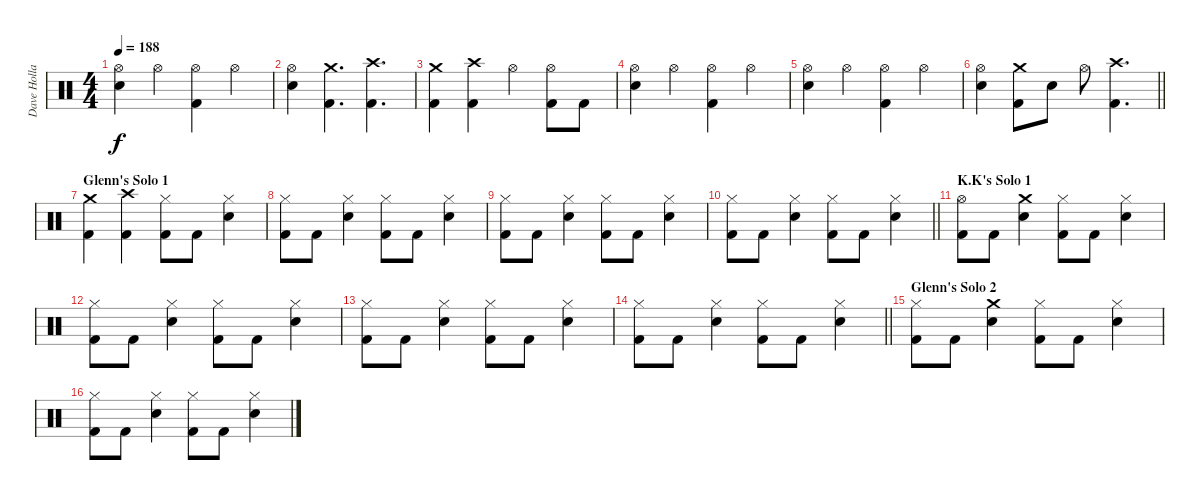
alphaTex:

\track ("Dave Holland" "Dave Holla") {instrument percussion}
\staff {score}
\articulation defaults
\ts (4 4)
\tempo 188
\clef neutral
\ks c
("Snare (hit) 2" "Hi-Hat (open)").4{dy f} "Hi-Hat (open)".4 ("Kick (hit) 2" "Hi-Hat (open)").4 "Hi-Hat (open)".4 |
("Snare (hit) 2" "Hi-Hat (open)").4 ("Kick (hit) 2" "Crash medium (hit)").4{d} ("Kick (hit) 2" "Crash high (hit)").4{d} |
("Kick (hit) 2" "Crash medium (hit)").4 ("Kick (hit) 2" "Crash high (hit)").4 "Hi-Hat (open)".4 ("Kick (hit) 2" "Hi-Hat (open)").8 "Kick (hit) 2".8 |
("Snare (hit) 2" "Hi-Hat (open)").4 "Hi-Hat (open)".4 ("Kick (hit) 2" "Hi-Hat (open)").4 "Hi-Hat (open)".4 |
("Snare (hit) 2" "Hi-Hat (open)").4 "Hi-Hat (open)".4 ("Kick (hit) 2" "Hi-Hat (open)").4 "Hi-Hat (open)".4 |
\barLineRight lightlight
("Snare (hit) 2" "Hi-Hat (open)").4 ("Kick (hit) 2" "Crash medium (hit)").8 "Snare (hit) 2".8 "Hi-Hat (open)".8 ("Kick (hit) 2" "Crash high (hit)").4{d} |
\section ("" "Glenn's Solo 1")
("Kick (hit) 2" "Crash medium (hit)").4 ("Kick (hit) 2" "Crash high (hit)").4 ("Kick (hit) 2" "Hi-Hat (closed)").8 "Kick (hit) 2".8 ("Snare (hit) 2" "Hi-Hat (closed)").4 |
("Kick (hit) 2" "Hi-Hat (closed)").8 "Kick (hit) 2".8 ("Snare (hit) 2" "Hi-Hat (closed)").4 ("Kick (hit) 2" "Hi-Hat (closed)").8 "Kick (hit) 2".8 ("Snare (hit) 2" "Hi-Hat (closed)").4 |
("Kick (hit) 2" "Hi-Hat (closed)").8 "Kick (hit) 2".8 ("Snare (hit) 2" "Hi-Hat (closed)").4 ("Kick (hit) 2" "Hi-Hat (closed)").8 "Kick (hit) 2".8 ("Snare (hit) 2" "Hi-Hat (closed)").4 |
\barLineRight lightlight
("Kick (hit) 2" "Hi-Hat (closed)").8 "Kick (hit) 2".8 ("Snare (hit) 2" "Hi-Hat (closed)").4 ("Kick (hit) 2" "Hi-Hat (closed)").8 "Kick (hit) 2".8 ("Snare (hit) 2" "Hi-Hat (closed)").4 |
\section ("" "K.K's Solo 1")
("Kick (hit) 2" "Hi-Hat (open)").8 "Kick (hit) 2".8 ("Snare (hit) 2" "Crash medium (hit)").4 ("Kick (hit) 2" "Hi-Hat (closed)").8 "Kick (hit) 2".8 ("Snare (hit) 2" "Hi-Hat (closed)").4 |
("Kick (hit) 2" "Hi-Hat (closed)").8 "Kick (hit) 2".8 ("Snare (hit) 2" "Hi-Hat (closed)").4 ("Kick (hit) 2" "Hi-Hat (closed)").8 "Kick (hit) 2".8 ("Snare (hit) 2" "Hi-Hat (closed)").4 |
("Kick (hit) 2" "Hi-Hat (closed)").8 "Kick (hit) 2".8 ("Snare (hit) 2" "Hi-Hat (closed)").4 ("Kick (hit) 2" "Hi-Hat (closed)").8 "Kick (hit) 2".8 ("Snare (hit) 2" "Hi-Hat (closed)").4 |
\barLineRight lightlight
("Kick (hit) 2" "Hi-Hat (closed)").8 "Kick (hit) 2".8 ("Snare (hit) 2" "Hi-Hat (closed)").4 ("Kick (hit) 2" "Hi-Hat (closed)").8 "Kick (hit) 2".8 ("Snare (hit) 2" "Hi-Hat (closed)").4 |
\section ("" "Glenn's Solo 2")
("Kick (hit) 2" "Hi-Hat (closed)").8 "Kick (hit) 2".8 ("Snare (hit) 2" "Crash medium (hit)").4 ("Kick (hit) 2" "Hi-Hat (closed)").8 "Kick (hit) 2".8 ("Snare (hit) 2" "Hi-Hat (closed)").4 |
("Kick (hit) 2" "Hi-Hat (closed)").8 "Kick (hit) 2".8 ("Snare (hit) 2" "Hi-Hat (closed)").4 ("Kick (hit) 2" "Hi-Hat (closed)").8 "Kick (hit) 2".8 ("Snare (hit) 2" "Hi-Hat (closed)").4
